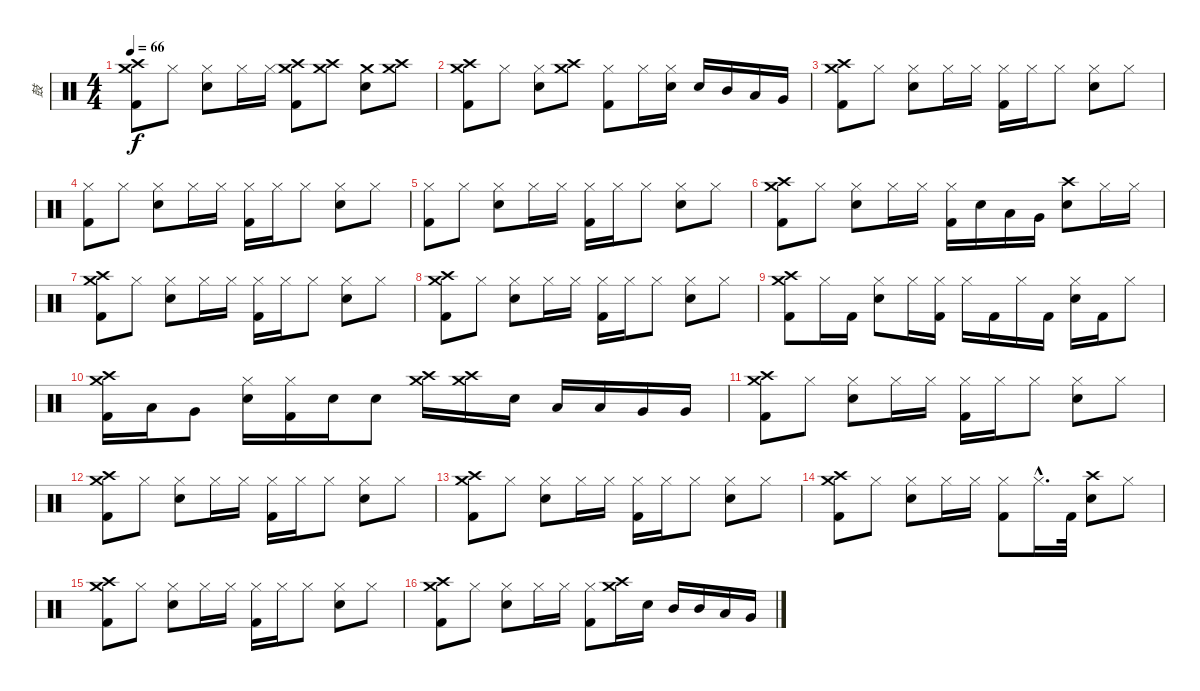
\track ("鼓" "鼓") {instrument percussion}
\staff {score}
\articulation defaults
\ts (4 4)
\tempo 66
\clef neutral
\ks c
("Crash high (hit)" "Crash medium (hit)" "Kick (hit) 2").8{dy f} "Hi-Hat (closed)".8 ("Hi-Hat (closed)" "Snare (hit) 2").8 "Hi-Hat (closed)".16 "Hi-Hat (closed)".16 ("Crash medium (hit)" "Crash high (hit)" "Kick (hit) 2").8 ("Crash medium (hit)" "Crash high (hit)").8 ("Crash medium (hit)" "Snare (hit) 2").8 ("Crash medium (hit)" "Crash high (hit)").8 |
("Crash high (hit)" "Crash medium (hit)" "Kick (hit) 2").8 "Hi-Hat (closed)".8 ("Hi-Hat (closed)" "Snare (hit) 2").8 ("Crash medium (hit)" "Crash high (hit)").8 ("Hi-Hat (closed)" "Kick (hit) 2").8 "Hi-Hat (closed)".16 ("Hi-Hat (closed)" "Snare (hit) 2").16 "Snare (hit) 2".16 "Mid Tom (hit)".16 "Low Tom (hit)".16 "Very Low Tom (hit)".16 |
("Crash medium (hit)" "Crash high (hit)" "Kick (hit) 2").8 "Hi-Hat (closed)".8 ("Hi-Hat (closed)" "Snare (hit) 2").8 "Hi-Hat (closed)".16 "Hi-Hat (closed)".16 ("Hi-Hat (closed)" "Kick (hit) 2").16 "Hi-Hat (closed)".16 "Hi-Hat (closed)".8 ("Hi-Hat (closed)" "Snare (hit) 2").8 "Hi-Hat (closed)".8 |
("Hi-Hat (closed)" "Kick (hit) 2").8 "Hi-Hat (closed)".8 ("Hi-Hat (closed)" "Snare (hit) 2").8 "Hi-Hat (closed)".16 "Hi-Hat (closed)".16 ("Hi-Hat (closed)" "Kick (hit) 2").16 "Hi-Hat (closed)".16 "Hi-Hat (closed)".8 ("Hi-Hat (closed)" "Snare (hit) 2").8 "Hi-Hat (closed)".8 |
("Hi-Hat (closed)" "Kick (hit) 2").8 "Hi-Hat (closed)".8 ("Hi-Hat (closed)" "Snare (hit) 2").8 "Hi-Hat (closed)".16 "Hi-Hat (closed)".16 ("Hi-Hat (closed)" "Kick (hit) 2").16 "Hi-Hat (closed)".16 "Hi-Hat (closed)".8 ("Hi-Hat (closed)" "Snare (hit) 2").8 "Hi-Hat (closed)".8 |
("Crash high (hit)" "Crash medium (hit)" "Kick (hit) 2").8 "Hi-Hat (closed)".8 ("Hi-Hat (closed)" "Snare (hit) 2").8 "Hi-Hat (closed)".16 "Hi-Hat (closed)".16 ("Hi-Hat (closed)" "Kick (hit) 2").16 "Snare (hit) 2".16 "Low Tom (hit)".16 "Very Low Tom (hit)".16 ("Crash high (hit)" "Snare (hit) 2").8 "Hi-Hat (closed)".16 "Hi-Hat (closed)".16 |
("Crash medium (hit)" "Crash high (hit)" "Kick (hit) 2").8 "Hi-Hat (closed)".8 ("Hi-Hat (closed)" "Snare (hit) 2").8 "Hi-Hat (closed)".16 "Hi-Hat (closed)".16 ("Hi-Hat (closed)" "Kick (hit) 2").16 "Hi-Hat (closed)".16 "Hi-Hat (closed)".8 ("Hi-Hat (closed)" "Snare (hit) 2").8 "Hi-Hat (closed)".8 |
("Crash medium (hit)" "Crash high (hit)" "Kick (hit) 2").8 "Hi-Hat (closed)".8 ("Hi-Hat (closed)" "Snare (hit) 2").8 "Hi-Hat (closed)".16 "Hi-Hat (closed)".16 ("Hi-Hat (closed)" "Kick (hit) 2").16 "Hi-Hat (closed)".16 "Hi-Hat (closed)".8 ("Hi-Hat (closed)" "Snare (hit) 2").8 "Hi-Hat (closed)".8 |
("Crash medium (hit)" "Crash high (hit)" "Kick (hit) 2").8 "Hi-Hat (closed)".16 "Kick (hit) 2".16 ("Hi-Hat (closed)" "Snare (hit) 2").8 "Hi-Hat (closed)".16 ("Hi-Hat (closed)" "Kick (hit) 2").16 "Hi-Hat (closed)".16 "Kick (hit) 2".16 "Hi-Hat (closed)".16 "Kick (hit) 2".16 ("Hi-Hat (closed)" "Snare (hit) 2").16 "Kick (hit) 2".16 "Hi-Hat (closed)".8 |
("Crash medium (hit)" "Crash high (hit)" "Kick (hit) 2").16 "Low Tom (hit)".16 "Very Low Tom (hit)".8 ("Hi-Hat (closed)" "Snare (hit) 2").16 ("Hi-Hat (closed)" "Kick (hit) 2").16 "Snare (hit) 2".16 "Snare (hit) 2".8 ("Crash high (hit)" "Crash medium (hit)").16 ("Crash high (hit)" "Crash medium (hit)").16 "Snare (hit) 2".16 "Low Tom (hit)".16 "Low Tom (hit)".16 "Very Low Tom (hit)".16 "Very Low Tom (hit)".16 |
("Crash medium (hit)" "Crash high (hit)" "Kick (hit) 2").8 "Hi-Hat (closed)".8 ("Hi-Hat (closed)" "Snare (hit) 2").8 "Hi-Hat (closed)".16 "Hi-Hat (closed)".16 ("Hi-Hat (closed)" "Kick (hit) 2").16 "Hi-Hat (closed)".16 "Hi-Hat (closed)".8 ("Hi-Hat (closed)" "Snare (hit) 2").8 "Hi-Hat (closed)".8 |
("Crash medium (hit)" "Crash high (hit)" "Kick (hit) 2").8 "Hi-Hat (closed)".8 ("Hi-Hat (closed)" "Snare (hit) 2").8 "Hi-Hat (closed)".16 "Hi-Hat (closed)".16 ("Hi-Hat (closed)" "Kick (hit) 2").16 "Hi-Hat (closed)".16 "Hi-Hat (closed)".8 ("Hi-Hat (closed)" "Snare (hit) 2").8 "Hi-Hat (closed)".8 |
("Crash medium (hit)" "Crash high (hit)" "Kick (hit) 2").8 "Hi-Hat (closed)".8 ("Hi-Hat (closed)" "Snare (hit) 2").8 "Hi-Hat (closed)".16 "Hi-Hat (closed)".16 ("Hi-Hat (closed)" "Kick (hit) 2").16 "Hi-Hat (closed)".16 "Hi-Hat (closed)".8 ("Hi-Hat (closed)" "Snare (hit) 2").8 "Hi-Hat (closed)".8 |
("Crash medium (hit)" "Crash high (hit)" "Kick (hit) 2").8 "Hi-Hat (closed)".8 ("Hi-Hat (closed)" "Snare (hit) 2").8 "Hi-Hat (closed)".16 "Hi-Hat (closed)".16 ("Hi-Hat (closed)" "Kick (hit) 2").8 "Hi-Hat (closed)"{hac}.16{d} "Kick (hit) 2".32 ("Crash high (hit)" "Snare (hit) 2").8 "Hi-Hat (closed)".8 |
("Crash medium (hit)" "Crash high (hit)" "Kick (hit) 2").8 "Hi-Hat (closed)".8 ("Hi-Hat (closed)" "Snare (hit) 2").8 "Hi-Hat (closed)".16 "Hi-Hat (closed)".16 ("Hi-Hat (closed)" "Kick (hit) 2").16 "Hi-Hat (closed)".16 "Hi-Hat (closed)".8 ("Hi-Hat (closed)" "Snare (hit) 2").8 "Hi-Hat (closed)".8 |
("Crash medium (hit)" "Crash high (hit)" "Kick (hit) 2").8 "Hi-Hat (closed)".8 ("Hi-Hat (closed)" "Snare (hit) 2").8 "Hi-Hat (closed)".16 "Hi-Hat (closed)".16 ("Hi-Hat (closed)" "Kick (hit) 2").8 ("Crash high (hit)" "Crash medium (hit)").16 "Snare (hit) 2".16 "Mid Tom (hit)".16 "Mid Tom (hit)".16 "Low Tom (hit)".16 "Very Low Tom (hit)".16
